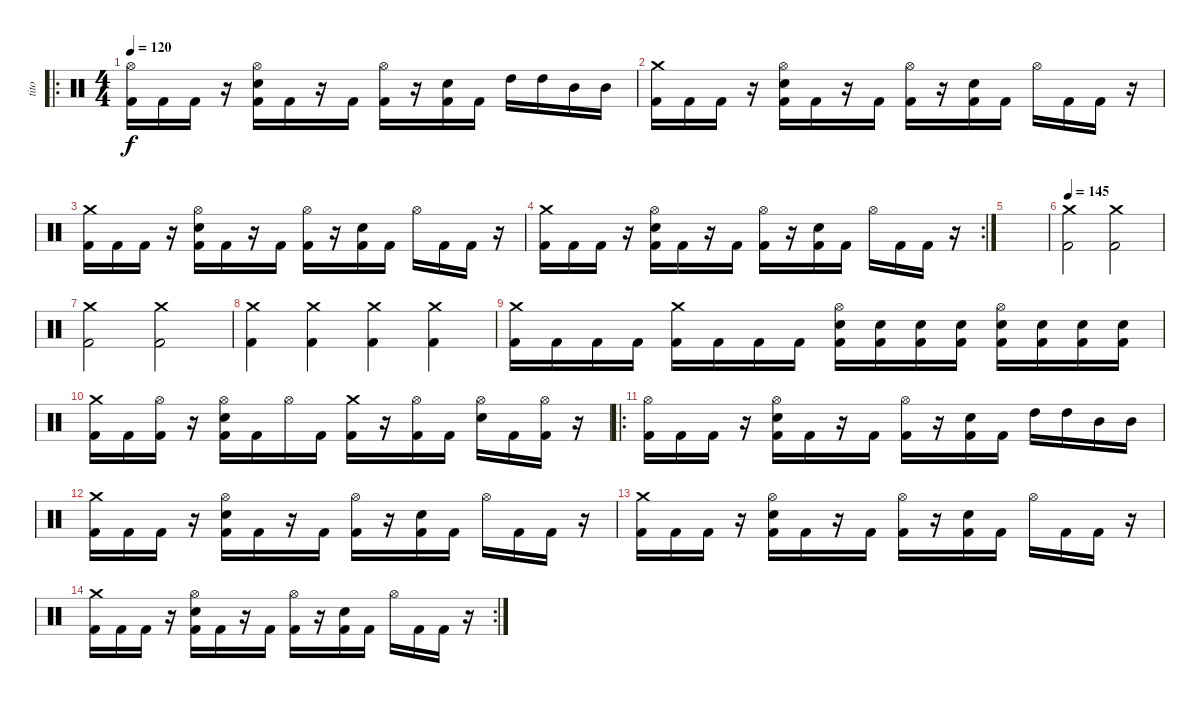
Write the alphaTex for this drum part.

\track ("tito" "tito") {instrument percussion}
\staff {score}
\articulation defaults
\ro
\ts (4 4)
\tempo 120
\clef neutral
\ks c
("Hi-Hat (open)" "Kick (hit) 2").16{dy f} "Kick (hit) 2".16 "Kick (hit) 2".16 r.16 ("Hi-Hat (open)" "Electric Snare (hit)" "Kick (hit) 2").16 "Kick (hit) 2".16 r.16 "Kick (hit) 2".16 ("Hi-Hat (open)" "Kick (hit) 2").16 r.16 ("Electric Snare (hit)" "Kick (hit) 2").16 "Kick (hit) 2".16 "High Tom (hit)".16 "High Tom (hit)".16 "Mid Tom (hit)".16 "Mid Tom (hit)".16 |
("Crash medium (hit)" "Kick (hit) 2").16 "Kick (hit) 2".16 "Kick (hit) 2".16 r.16 ("Hi-Hat (open)" "Electric Snare (hit)" "Kick (hit) 2").16 "Kick (hit) 2".16 r.16 "Kick (hit) 2".16 ("Hi-Hat (open)" "Kick (hit) 2").16 r.16 ("Electric Snare (hit)" "Kick (hit) 2").16 "Kick (hit) 2".16 "Hi-Hat (open)".16 "Kick (hit) 2".16 "Kick (hit) 2".16 r.16 |
("Crash medium (hit)" "Kick (hit) 2").16 "Kick (hit) 2".16 "Kick (hit) 2".16 r.16 ("Hi-Hat (open)" "Electric Snare (hit)" "Kick (hit) 2").16 "Kick (hit) 2".16 r.16 "Kick (hit) 2".16 ("Hi-Hat (open)" "Kick (hit) 2").16 r.16 ("Electric Snare (hit)" "Kick (hit) 2").16 "Kick (hit) 2".16 "Hi-Hat (open)".16 "Kick (hit) 2".16 "Kick (hit) 2".16 r.16 |
\rc 2
("Crash medium (hit)" "Kick (hit) 2").16 "Kick (hit) 2".16 "Kick (hit) 2".16 r.16 ("Hi-Hat (open)" "Electric Snare (hit)" "Kick (hit) 2").16 "Kick (hit) 2".16 r.16 "Kick (hit) 2".16 ("Hi-Hat (open)" "Kick (hit) 2").16 r.16 ("Electric Snare (hit)" "Kick (hit) 2").16 "Kick (hit) 2".16 "Hi-Hat (open)".16 "Kick (hit) 2".16 "Kick (hit) 2".16 r.16 |
|
\tempo 145
("Crash medium (hit)" "Kick (hit) 2").2 ("Crash medium (hit)" "Kick (hit) 2").2 |
("Crash medium (hit)" "Kick (hit) 2").2 ("Crash medium (hit)" "Kick (hit) 2").2 |
("Crash medium (hit)" "Kick (hit) 2").4 ("Crash medium (hit)" "Kick (hit) 2").4 ("Crash medium (hit)" "Kick (hit) 2").4 ("Crash medium (hit)" "Kick (hit) 2").4 |
("Crash medium (hit)" "Kick (hit) 2").16 "Kick (hit) 2".16 "Kick (hit) 2".16 "Kick (hit) 2".16 ("Crash medium (hit)" "Kick (hit) 2").16 "Kick (hit) 2".16 "Kick (hit) 2".16 "Kick (hit) 2".16 ("Hi-Hat (open)" "Electric Snare (hit)" "Kick (hit) 2").16 ("Electric Snare (hit)" "Kick (hit) 2").16 ("Electric Snare (hit)" "Kick (hit) 2").16 ("Electric Snare (hit)" "Kick (hit) 2").16 ("Hi-Hat (open)" "Electric Snare (hit)" "Kick (hit) 2").16 ("Electric Snare (hit)" "Kick (hit) 2").16 ("Electric Snare (hit)" "Kick (hit) 2").16 ("Electric Snare (hit)" "Kick (hit) 2").16 |
("Crash medium (hit)" "Kick (hit) 2").16 "Kick (hit) 2".16 ("Hi-Hat (open)" "Kick (hit) 2").16 r.16 ("Hi-Hat (open)" "Electric Snare (hit)" "Kick (hit) 2").16 "Kick (hit) 2".16 "Hi-Hat (open)".16 "Kick (hit) 2".16 ("Crash medium (hit)" "Kick (hit) 2").16 r.16 ("Hi-Hat (open)" "Kick (hit) 2").16 "Kick (hit) 2".16 ("Hi-Hat (open)" "Electric Snare (hit)").16 "Kick (hit) 2".16 ("Hi-Hat (open)" "Kick (hit) 2").16 r.16 |
\ro
("Hi-Hat (open)" "Kick (hit) 2").16 "Kick (hit) 2".16 "Kick (hit) 2".16 r.16 ("Hi-Hat (open)" "Electric Snare (hit)" "Kick (hit) 2").16 "Kick (hit) 2".16 r.16 "Kick (hit) 2".16 ("Hi-Hat (open)" "Kick (hit) 2").16 r.16 ("Electric Snare (hit)" "Kick (hit) 2").16 "Kick (hit) 2".16 "High Tom (hit)".16 "High Tom (hit)".16 "Mid Tom (hit)".16 "Mid Tom (hit)".16 |
("Crash medium (hit)" "Kick (hit) 2").16 "Kick (hit) 2".16 "Kick (hit) 2".16 r.16 ("Hi-Hat (open)" "Electric Snare (hit)" "Kick (hit) 2").16 "Kick (hit) 2".16 r.16 "Kick (hit) 2".16 ("Hi-Hat (open)" "Kick (hit) 2").16 r.16 ("Electric Snare (hit)" "Kick (hit) 2").16 "Kick (hit) 2".16 "Hi-Hat (open)".16 "Kick (hit) 2".16 "Kick (hit) 2".16 r.16 |
("Crash medium (hit)" "Kick (hit) 2").16 "Kick (hit) 2".16 "Kick (hit) 2".16 r.16 ("Hi-Hat (open)" "Electric Snare (hit)" "Kick (hit) 2").16 "Kick (hit) 2".16 r.16 "Kick (hit) 2".16 ("Hi-Hat (open)" "Kick (hit) 2").16 r.16 ("Electric Snare (hit)" "Kick (hit) 2").16 "Kick (hit) 2".16 "Hi-Hat (open)".16 "Kick (hit) 2".16 "Kick (hit) 2".16 r.16 |
\rc 2
("Crash medium (hit)" "Kick (hit) 2").16 "Kick (hit) 2".16 "Kick (hit) 2".16 r.16 ("Hi-Hat (open)" "Electric Snare (hit)" "Kick (hit) 2").16 "Kick (hit) 2".16 r.16 "Kick (hit) 2".16 ("Hi-Hat (open)" "Kick (hit) 2").16 r.16 ("Electric Snare (hit)" "Kick (hit) 2").16 "Kick (hit) 2".16 "Hi-Hat (open)".16 "Kick (hit) 2".16 "Kick (hit) 2".16 r.16
